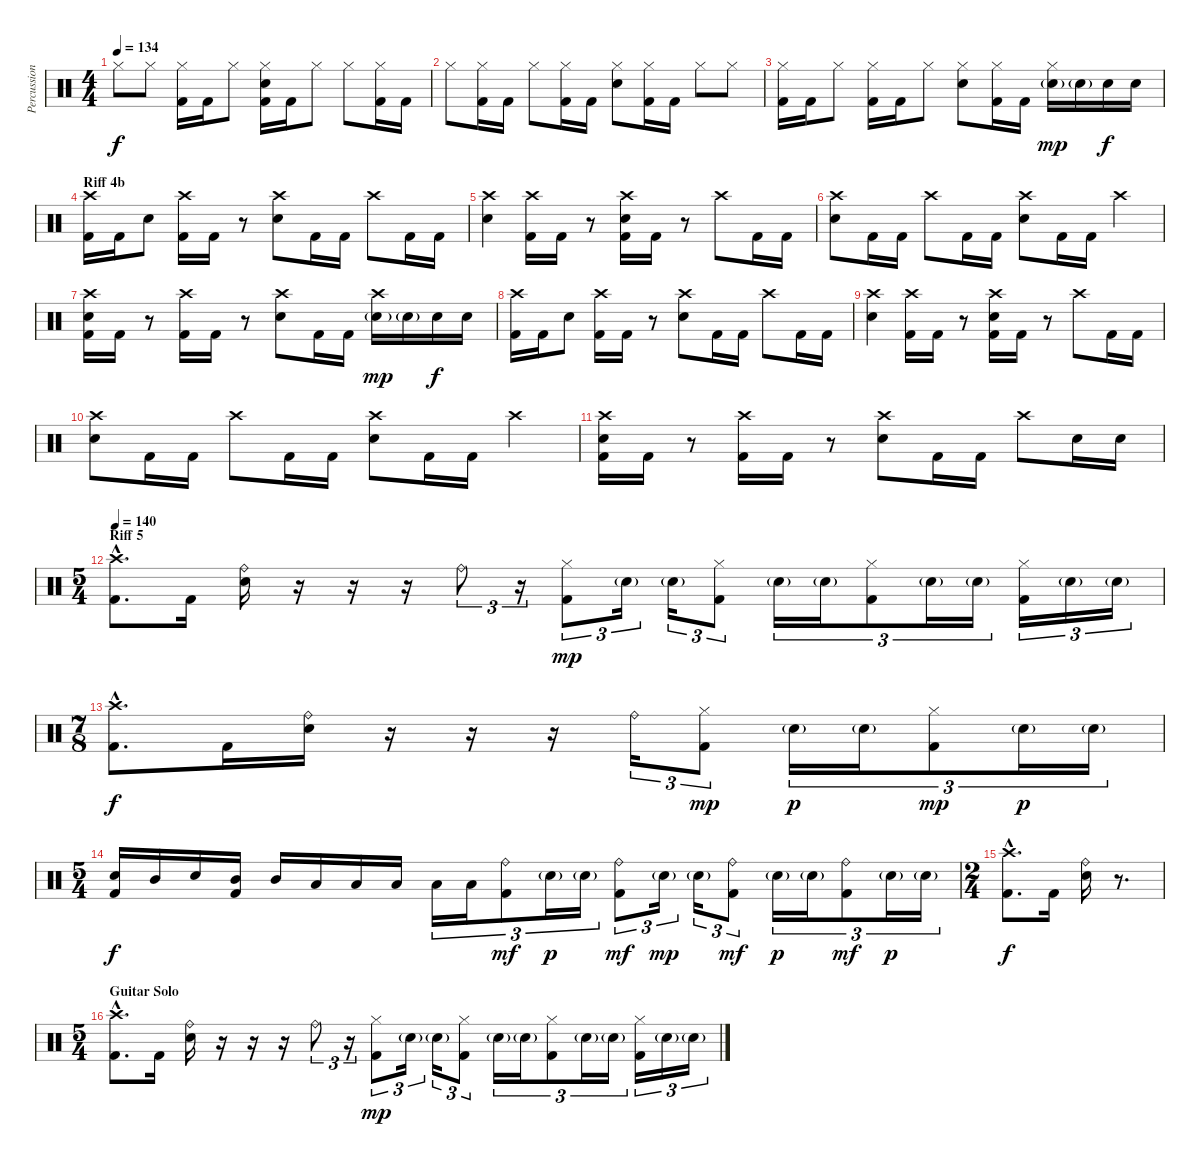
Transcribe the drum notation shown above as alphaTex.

\track ("Percussion" "Percussion") {instrument percussion}
\staff {score}
\articulation defaults
\ts (4 4)
\tempo 134
\clef neutral
\ks c "Hi-Hat (closed)".8{dy f} "Hi-Hat (closed)".8
("Hi-Hat (closed)" "Kick (hit) 2").16 "Kick (hit) 2".16 "Hi-Hat (closed)".8 ("Hi-Hat (closed)" "Electric Snare (hit)" "Kick (hit) 2").16 "Kick (hit) 2".16 "Hi-Hat (closed)".8 "Hi-Hat (closed)".8 ("Hi-Hat (closed)" "Kick (hit) 2").16 "Kick (hit) 2".16 |
"Hi-Hat (closed)".8 ("Hi-Hat (closed)" "Kick (hit) 2").16 "Kick (hit) 2".16 "Hi-Hat (closed)".8 ("Hi-Hat (closed)" "Kick (hit) 2").16 "Kick (hit) 2".16 ("Hi-Hat (closed)" "Electric Snare (hit)").8 ("Hi-Hat (closed)" "Kick (hit) 2").16 "Kick (hit) 2".16 "Hi-Hat (closed)".8 "Hi-Hat (closed)".8 |
("Hi-Hat (closed)" "Kick (hit) 2").16 "Kick (hit) 2".16 "Hi-Hat (closed)".8 ("Hi-Hat (closed)" "Kick (hit) 2").16 "Kick (hit) 2".16 "Hi-Hat (closed)".8 ("Hi-Hat (closed)" "Electric Snare (hit)").8 ("Hi-Hat (closed)" "Kick (hit) 2").16 "Kick (hit) 2".16 ("Hi-Hat (closed)" "Electric Snare (hit)"{g}).16{dy mp} "Electric Snare (hit)"{g}.16 "Electric Snare (hit)".16{dy f} "Electric Snare (hit)".16 |
\section ("" "Riff 4b")
("Crash high (hit)" "Kick (hit) 2").16 "Kick (hit) 2".16 "Electric Snare (hit)".8 ("Crash high (hit)" "Kick (hit) 2").16 "Kick (hit) 2".16 r.8 ("Crash high (hit)" "Electric Snare (hit)").8 "Kick (hit) 2".16 "Kick (hit) 2".16 "Crash high (hit)".8 "Kick (hit) 2".16 "Kick (hit) 2".16 |
("Crash high (hit)" "Electric Snare (hit)").4 ("Crash high (hit)" "Kick (hit) 2").16 "Kick (hit) 2".16 r.8 ("Crash high (hit)" "Electric Snare (hit)" "Kick (hit) 2").16 "Kick (hit) 2".16 r.8 "Crash high (hit)".8 "Kick (hit) 2".16 "Kick (hit) 2".16 |
("Crash high (hit)" "Electric Snare (hit)").8 "Kick (hit) 2".16 "Kick (hit) 2".16 "Crash high (hit)".8 "Kick (hit) 2".16 "Kick (hit) 2".16 ("Crash high (hit)" "Electric Snare (hit)").8 "Kick (hit) 2".16 "Kick (hit) 2".16 "Crash high (hit)".4 |
("Crash high (hit)" "Electric Snare (hit)" "Kick (hit) 2").16 "Kick (hit) 2".16 r.8 ("Crash high (hit)" "Kick (hit) 2").16 "Kick (hit) 2".16 r.8 ("Crash high (hit)" "Electric Snare (hit)").8 "Kick (hit) 2".16 "Kick (hit) 2".16 ("Crash high (hit)" "Electric Snare (hit)"{g}).16{dy mp} "Electric Snare (hit)"{g}.16 "Electric Snare (hit)".16{dy f} "Electric Snare (hit)".16 |
("Crash high (hit)" "Kick (hit) 2").16 "Kick (hit) 2".16 "Electric Snare (hit)".8 ("Crash high (hit)" "Kick (hit) 2").16 "Kick (hit) 2".16 r.8 ("Crash high (hit)" "Electric Snare (hit)").8 "Kick (hit) 2".16 "Kick (hit) 2".16 "Crash high (hit)".8 "Kick (hit) 2".16 "Kick (hit) 2".16 |
("Crash high (hit)" "Electric Snare (hit)").4 ("Crash high (hit)" "Kick (hit) 2").16 "Kick (hit) 2".16 r.8 ("Crash high (hit)" "Electric Snare (hit)" "Kick (hit) 2").16 "Kick (hit) 2".16 r.8 "Crash high (hit)".8 "Kick (hit) 2".16 "Kick (hit) 2".16 |
("Crash high (hit)" "Electric Snare (hit)").8 "Kick (hit) 2".16 "Kick (hit) 2".16 "Crash high (hit)".8 "Kick (hit) 2".16 "Kick (hit) 2".16 ("Crash high (hit)" "Electric Snare (hit)").8 "Kick (hit) 2".16 "Kick (hit) 2".16 "Crash high (hit)".4 |
("Crash high (hit)" "Electric Snare (hit)" "Kick (hit) 2").16 "Kick (hit) 2".16 r.8 ("Crash high (hit)" "Kick (hit) 2").16 "Kick (hit) 2".16 r.8 ("Crash high (hit)" "Electric Snare (hit)").8 "Kick (hit) 2".16 "Kick (hit) 2".16 "Crash high (hit)".8 "Electric Snare (hit)".16 "Electric Snare (hit)".16 |
\ts (5 4)
\section ("" "Riff 5")
\tempo 140
("Crash high (hit)"{hac} "Kick (hit) 2"{hac}).8{d} "Kick (hit) 2".16 ("Ride (bell)" "Electric Snare (hit)").16 r.16 r.16 r.16 "Ride (bell)".8{tu (3 2)} r.16{tu (3 2)} ("Hi-Hat (closed)" "Kick (hit) 2").8{tu (3 2) dy mp} "Electric Snare (hit)"{g}.16{tu (3 2)} "Electric Snare (hit)"{g}.16{tu (3 2)} ("Hi-Hat (closed)" "Kick (hit) 2").8{tu (3 2)} "Electric Snare (hit)"{g}.16{tu (3 2)} "Electric Snare (hit)"{g}.16{tu (3 2)} ("Hi-Hat (closed)" "Kick (hit) 2").8{tu (3 2)} "Electric Snare (hit)"{g}.16{tu (3 2)} "Electric Snare (hit)"{g}.16{tu (3 2)} ("Hi-Hat (closed)" "Kick (hit) 2").16{tu (3 2)} "Electric Snare (hit)"{g}.16{tu (3 2)} "Electric Snare (hit)"{g}.16{tu (3 2)} |
\ts (7 8)
("Crash high (hit)"{hac} "Kick (hit) 2"{hac}).8{d dy f} "Kick (hit) 2".16 ("Ride (bell)" "Electric Snare (hit)").16 r.16 r.16 r.16 "Ride (bell)".16{tu (3 2)} ("Hi-Hat (closed)" "Kick (hit) 2").8{tu (3 2) dy mp} "Electric Snare (hit)"{g}.16{tu (3 2) dy p} "Electric Snare (hit)"{g}.16{tu (3 2)} ("Hi-Hat (closed)" "Kick (hit) 2").8{tu (3 2) dy mp} "Electric Snare (hit)"{g}.16{tu (3 2) dy p} "Electric Snare (hit)"{g}.16{tu (3 2)} |
\ts (5 4)
("Electric Snare (hit)" "Kick (hit) 2").16{dy f} "Mid Tom (hit)".16 "Electric Snare (hit)".16 ("Mid Tom (hit)" "Kick (hit) 2").16 "Mid Tom (hit)".16 "Low Tom (hit)".16 "Low Tom (hit)".16 "Low Floor Tom (hit)".16 "Low Floor Tom (hit)".16{tu (3 2)} "Low Floor Tom (hit)".16{tu (3 2)} ("Ride (bell)" "Kick (hit) 2").8{tu (3 2) dy mf} "Electric Snare (hit)"{g}.16{tu (3 2) dy p} "Electric Snare (hit)"{g}.16{tu (3 2)} ("Ride (bell)" "Kick (hit) 2").8{tu (3 2) dy mf} "Electric Snare (hit)"{g}.16{tu (3 2) dy mp} "Electric Snare (hit)"{g}.16{tu (3 2)} ("Ride (bell)" "Kick (hit) 2").8{tu (3 2) dy mf} "Electric Snare (hit)"{g}.16{tu (3 2) dy p} "Electric Snare (hit)"{g}.16{tu (3 2)} ("Ride (bell)" "Kick (hit) 2").8{tu (3 2) dy mf} "Electric Snare (hit)"{g}.16{tu (3 2) dy p} "Electric Snare (hit)"{g}.16{tu (3 2)} |
\ts (2 4)
("Crash high (hit)"{hac} "Kick (hit) 2"{hac}).8{d dy f} "Kick (hit) 2".16 ("Ride (bell)" "Electric Snare (hit)").16 r.8{d} |
\ts (5 4)
\section ("" "Guitar Solo")
("Crash high (hit)"{hac} "Kick (hit) 2"{hac}).8{d} "Kick (hit) 2".16 ("Ride (bell)" "Electric Snare (hit)").16 r.16 r.16 r.16 "Ride (bell)".8{tu (3 2)} r.16{tu (3 2)} ("Hi-Hat (closed)" "Kick (hit) 2").8{tu (3 2) dy mp} "Electric Snare (hit)"{g}.16{tu (3 2)} "Electric Snare (hit)"{g}.16{tu (3 2)} ("Hi-Hat (closed)" "Kick (hit) 2").8{tu (3 2)} "Electric Snare (hit)"{g}.16{tu (3 2)} "Electric Snare (hit)"{g}.16{tu (3 2)} ("Hi-Hat (closed)" "Kick (hit) 2").8{tu (3 2)} "Electric Snare (hit)"{g}.16{tu (3 2)} "Electric Snare (hit)"{g}.16{tu (3 2)} ("Hi-Hat (closed)" "Kick (hit) 2").16{tu (3 2)} "Electric Snare (hit)"{g}.16{tu (3 2)} "Electric Snare (hit)"{g}.16{tu (3 2)}
